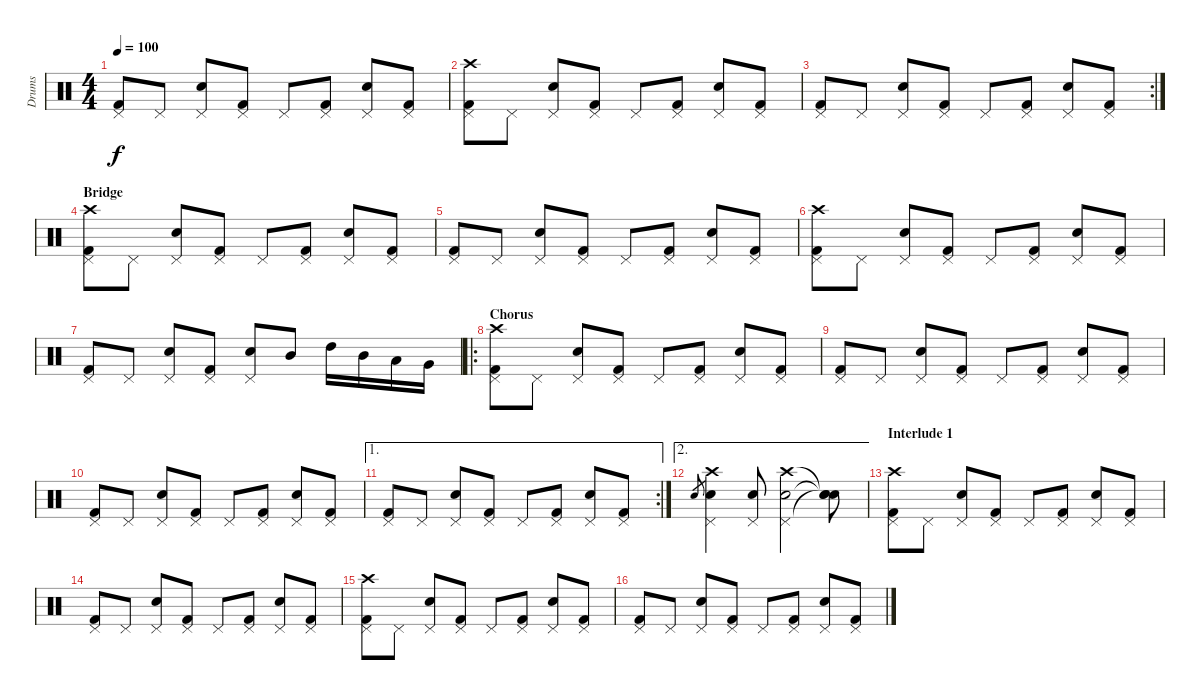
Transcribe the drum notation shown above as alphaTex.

\track ("Drums" "Drums") {instrument percussion}
\staff {score}
\articulation defaults
\ts (4 4)
\tempo 100
\clef neutral
\ks c
("Kick (hit) 2" "Pedal Hi-Hat (hit)").8{dy f} "Pedal Hi-Hat (hit)".8 ("Snare (hit) 2" "Pedal Hi-Hat (hit)").8 ("Kick (hit) 2" "Pedal Hi-Hat (hit)").8 "Pedal Hi-Hat (hit)".8 ("Kick (hit) 2" "Pedal Hi-Hat (hit)").8 ("Snare (hit) 2" "Pedal Hi-Hat (hit)").8 ("Kick (hit) 2" "Pedal Hi-Hat (hit)").8 |
("Kick (hit) 2" "Pedal Hi-Hat (hit)" "Crash high (hit)").8 "Pedal Hi-Hat (hit)".8 ("Snare (hit) 2" "Pedal Hi-Hat (hit)").8 ("Kick (hit) 2" "Pedal Hi-Hat (hit)").8 "Pedal Hi-Hat (hit)".8 ("Kick (hit) 2" "Pedal Hi-Hat (hit)").8 ("Snare (hit) 2" "Pedal Hi-Hat (hit)").8 ("Kick (hit) 2" "Pedal Hi-Hat (hit)").8 |
\rc 2
("Kick (hit) 2" "Pedal Hi-Hat (hit)").8 "Pedal Hi-Hat (hit)".8 ("Snare (hit) 2" "Pedal Hi-Hat (hit)").8 ("Kick (hit) 2" "Pedal Hi-Hat (hit)").8 "Pedal Hi-Hat (hit)".8 ("Kick (hit) 2" "Pedal Hi-Hat (hit)").8 ("Snare (hit) 2" "Pedal Hi-Hat (hit)").8 ("Kick (hit) 2" "Pedal Hi-Hat (hit)").8 |
\section ("" "Bridge")
("Kick (hit) 2" "Pedal Hi-Hat (hit)" "Crash high (hit)").8 "Pedal Hi-Hat (hit)".8 ("Snare (hit) 2" "Pedal Hi-Hat (hit)").8 ("Kick (hit) 2" "Pedal Hi-Hat (hit)").8 "Pedal Hi-Hat (hit)".8 ("Kick (hit) 2" "Pedal Hi-Hat (hit)").8 ("Snare (hit) 2" "Pedal Hi-Hat (hit)").8 ("Kick (hit) 2" "Pedal Hi-Hat (hit)").8 |
("Kick (hit) 2" "Pedal Hi-Hat (hit)").8 "Pedal Hi-Hat (hit)".8 ("Snare (hit) 2" "Pedal Hi-Hat (hit)").8 ("Kick (hit) 2" "Pedal Hi-Hat (hit)").8 "Pedal Hi-Hat (hit)".8 ("Kick (hit) 2" "Pedal Hi-Hat (hit)").8 ("Snare (hit) 2" "Pedal Hi-Hat (hit)").8 ("Kick (hit) 2" "Pedal Hi-Hat (hit)").8 |
("Kick (hit) 2" "Pedal Hi-Hat (hit)" "Crash high (hit)").8 "Pedal Hi-Hat (hit)".8 ("Snare (hit) 2" "Pedal Hi-Hat (hit)").8 ("Kick (hit) 2" "Pedal Hi-Hat (hit)").8 "Pedal Hi-Hat (hit)".8 ("Kick (hit) 2" "Pedal Hi-Hat (hit)").8 ("Snare (hit) 2" "Pedal Hi-Hat (hit)").8 ("Kick (hit) 2" "Pedal Hi-Hat (hit)").8 |
("Kick (hit) 2" "Pedal Hi-Hat (hit)").8 "Pedal Hi-Hat (hit)".8 ("Snare (hit) 2" "Pedal Hi-Hat (hit)").8 ("Kick (hit) 2" "Pedal Hi-Hat (hit)").8 ("Snare (hit) 2" "Pedal Hi-Hat (hit)").8 "Mid Tom (hit)".8 "High Tom (hit)".16 "Mid Tom (hit)".16 "Low Tom (hit)".16 "Very Low Tom (hit)".16 |
\ro
\section ("" "Chorus")
("Kick (hit) 2" "Pedal Hi-Hat (hit)" "Crash high (hit)").8 "Pedal Hi-Hat (hit)".8 ("Snare (hit) 2" "Pedal Hi-Hat (hit)").8 ("Kick (hit) 2" "Pedal Hi-Hat (hit)").8 "Pedal Hi-Hat (hit)".8 ("Kick (hit) 2" "Pedal Hi-Hat (hit)").8 ("Snare (hit) 2" "Pedal Hi-Hat (hit)").8 ("Kick (hit) 2" "Pedal Hi-Hat (hit)").8 |
("Kick (hit) 2" "Pedal Hi-Hat (hit)").8 "Pedal Hi-Hat (hit)".8 ("Snare (hit) 2" "Pedal Hi-Hat (hit)").8 ("Kick (hit) 2" "Pedal Hi-Hat (hit)").8 "Pedal Hi-Hat (hit)".8 ("Kick (hit) 2" "Pedal Hi-Hat (hit)").8 ("Snare (hit) 2" "Pedal Hi-Hat (hit)").8 ("Kick (hit) 2" "Pedal Hi-Hat (hit)").8 |
("Kick (hit) 2" "Pedal Hi-Hat (hit)").8 "Pedal Hi-Hat (hit)".8 ("Snare (hit) 2" "Pedal Hi-Hat (hit)").8 ("Kick (hit) 2" "Pedal Hi-Hat (hit)").8 "Pedal Hi-Hat (hit)".8 ("Kick (hit) 2" "Pedal Hi-Hat (hit)").8 ("Snare (hit) 2" "Pedal Hi-Hat (hit)").8 ("Kick (hit) 2" "Pedal Hi-Hat (hit)").8 |
\ae 1
\rc 2
("Kick (hit) 2" "Pedal Hi-Hat (hit)").8 "Pedal Hi-Hat (hit)".8 ("Snare (hit) 2" "Pedal Hi-Hat (hit)").8 ("Kick (hit) 2" "Pedal Hi-Hat (hit)").8 "Pedal Hi-Hat (hit)".8 ("Kick (hit) 2" "Pedal Hi-Hat (hit)").8 ("Snare (hit) 2" "Pedal Hi-Hat (hit)").8 ("Kick (hit) 2" "Pedal Hi-Hat (hit)").8 |
\ae 2 "Snare (hit) 2".8{gr}
("Snare (hit) 2" "Pedal Hi-Hat (hit)" "Crash high (hit)").4 ("Snare (hit) 2" "Pedal Hi-Hat (hit)").8 ("Snare (hit) 2" "Pedal Hi-Hat (hit)" "Crash high (hit)").2 ("Snare (hit)"{t} "Snare (hit)"{t} "Snare (hit)"{t}).8 |
\section ("" "Interlude 1")
("Kick (hit) 2" "Pedal Hi-Hat (hit)" "Crash high (hit)").8 "Pedal Hi-Hat (hit)".8 ("Snare (hit) 2" "Pedal Hi-Hat (hit)").8 ("Kick (hit) 2" "Pedal Hi-Hat (hit)").8 "Pedal Hi-Hat (hit)".8 ("Kick (hit) 2" "Pedal Hi-Hat (hit)").8 ("Snare (hit) 2" "Pedal Hi-Hat (hit)").8 ("Kick (hit) 2" "Pedal Hi-Hat (hit)").8 |
("Kick (hit) 2" "Pedal Hi-Hat (hit)").8 "Pedal Hi-Hat (hit)".8 ("Snare (hit) 2" "Pedal Hi-Hat (hit)").8 ("Kick (hit) 2" "Pedal Hi-Hat (hit)").8 "Pedal Hi-Hat (hit)".8 ("Kick (hit) 2" "Pedal Hi-Hat (hit)").8 ("Snare (hit) 2" "Pedal Hi-Hat (hit)").8 ("Kick (hit) 2" "Pedal Hi-Hat (hit)").8 |
("Kick (hit) 2" "Pedal Hi-Hat (hit)" "Crash high (hit)").8 "Pedal Hi-Hat (hit)".8 ("Snare (hit) 2" "Pedal Hi-Hat (hit)").8 ("Kick (hit) 2" "Pedal Hi-Hat (hit)").8 "Pedal Hi-Hat (hit)".8 ("Kick (hit) 2" "Pedal Hi-Hat (hit)").8 ("Snare (hit) 2" "Pedal Hi-Hat (hit)").8 ("Kick (hit) 2" "Pedal Hi-Hat (hit)").8 |
("Kick (hit) 2" "Pedal Hi-Hat (hit)").8 "Pedal Hi-Hat (hit)".8 ("Snare (hit) 2" "Pedal Hi-Hat (hit)").8 ("Kick (hit) 2" "Pedal Hi-Hat (hit)").8 "Pedal Hi-Hat (hit)".8 ("Kick (hit) 2" "Pedal Hi-Hat (hit)").8 ("Snare (hit) 2" "Pedal Hi-Hat (hit)").8 ("Kick (hit) 2" "Pedal Hi-Hat (hit)").8
